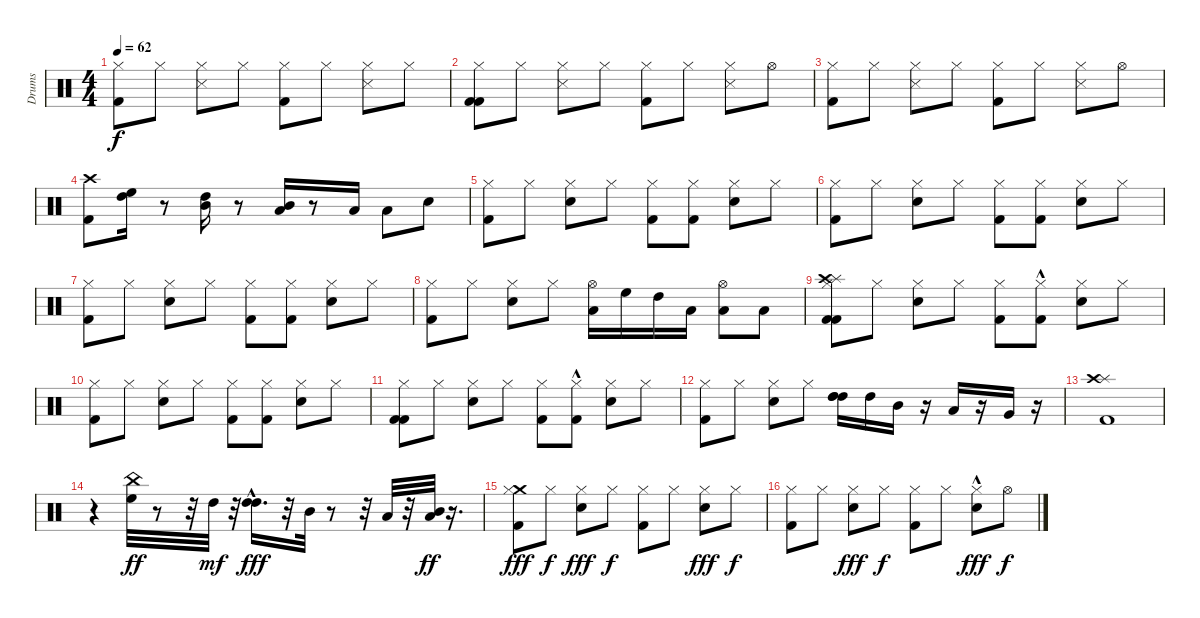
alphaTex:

\track ("Drums" "Drums") {instrument percussion}
\staff {score}
\articulation defaults
\ts (4 4)
\tempo 62
\clef neutral
\ks c
("Kick (hit) 2" "Hi-Hat (closed)").8{dy f} "Hi-Hat (closed)".8 ("Snare (side stick) 3" "Hi-Hat (closed)").8 "Hi-Hat (closed)".8 ("Kick (hit) 2" "Hi-Hat (closed)").8 "Hi-Hat (closed)".8 ("Snare (side stick) 3" "Hi-Hat (closed)").8 "Hi-Hat (closed)".8 |
("Kick (hit) 2" "Hi-Hat (closed)" "Kick (hit) 2").8 "Hi-Hat (closed)".8 ("Snare (side stick) 3" "Hi-Hat (closed)").8 "Hi-Hat (closed)".8 ("Kick (hit) 2" "Hi-Hat (closed)").8 "Hi-Hat (closed)".8 ("Snare (side stick) 3" "Hi-Hat (closed)").8 "Hi-Hat (open)".8 |
("Kick (hit) 2" "Hi-Hat (closed)").8 "Hi-Hat (closed)".8 ("Snare (side stick) 3" "Hi-Hat (closed)").8 "Hi-Hat (closed)".8 ("Kick (hit) 2" "Hi-Hat (closed)").8 "Hi-Hat (closed)".8 ("Snare (side stick) 3" "Hi-Hat (closed)").8 "Hi-Hat (open)".8 |
("Crash high (hit)" "Kick (hit) 2").8 ("High Floor Tom (hit)" "High Tom (hit)").16 r.8 ("Mid Tom (hit)" "High Tom (hit)").16 r.8 ("Mid Tom (hit)" "Low Tom (hit)").16 r.8 "Low Floor Tom (hit)".16 "Low Floor Tom (hit)".8 "Snare (hit) 2".8 |
("Kick (hit) 2" "Hi-Hat (closed)").8 "Hi-Hat (closed)".8 ("Snare (hit) 2" "Hi-Hat (closed)").8 "Hi-Hat (closed)".8 ("Kick (hit) 2" "Hi-Hat (closed)").8 ("Kick (hit) 2" "Hi-Hat (closed)").8 ("Snare (hit) 2" "Hi-Hat (closed)").8 "Hi-Hat (closed)".8 |
("Kick (hit) 2" "Hi-Hat (closed)").8 "Hi-Hat (closed)".8 ("Snare (hit) 2" "Hi-Hat (closed)").8 "Hi-Hat (closed)".8 ("Kick (hit) 2" "Hi-Hat (closed)").8 ("Kick (hit) 2" "Hi-Hat (closed)").8 ("Snare (hit) 2" "Hi-Hat (closed)").8 "Hi-Hat (closed)".8 |
("Kick (hit) 2" "Hi-Hat (closed)").8 "Hi-Hat (closed)".8 ("Snare (hit) 2" "Hi-Hat (closed)").8 "Hi-Hat (closed)".8 ("Kick (hit) 2" "Hi-Hat (closed)").8 ("Kick (hit) 2" "Hi-Hat (closed)").8 ("Snare (hit) 2" "Hi-Hat (closed)").8 "Hi-Hat (closed)".8 |
("Kick (hit) 2" "Hi-Hat (closed)").8 "Hi-Hat (closed)".8 ("Snare (hit) 2" "Hi-Hat (closed)").8 "Hi-Hat (closed)".8 ("Hi-Hat (open)" "Low Tom (hit)").16 "High Floor Tom (hit)".16 "High Tom (hit)".16 "Low Tom (hit)".16 ("Hi-Hat (open)" "Low Floor Tom (hit)").8 "Low Floor Tom (hit)".8 |
("Kick (hit) 2" "Hi-Hat (closed)" "Splash (hit)" "Crash high (hit)" "Kick (hit) 2").8 "Hi-Hat (closed)".8 ("Snare (hit) 2" "Hi-Hat (closed)").8 "Hi-Hat (closed)".8 ("Kick (hit) 2" "Hi-Hat (closed)").8 ("Kick (hit) 2"{hac} "Hi-Hat (closed)").8 ("Snare (hit) 2" "Hi-Hat (closed)").8 "Hi-Hat (closed)".8 |
("Kick (hit) 2" "Hi-Hat (closed)").8 "Hi-Hat (closed)".8 ("Snare (hit) 2" "Hi-Hat (closed)").8 "Hi-Hat (closed)".8 ("Kick (hit) 2" "Hi-Hat (closed)").8 ("Kick (hit) 2" "Hi-Hat (closed)").8 ("Snare (hit) 2" "Hi-Hat (closed)").8 "Hi-Hat (closed)".8 |
("Kick (hit) 2" "Hi-Hat (closed)" "Kick (hit) 2").8 "Hi-Hat (closed)".8 ("Snare (hit) 2" "Hi-Hat (closed)").8 "Hi-Hat (closed)".8 ("Kick (hit) 2" "Hi-Hat (closed)").8 ("Kick (hit) 2"{hac} "Hi-Hat (closed)").8 ("Snare (hit) 2" "Hi-Hat (closed)").8 "Hi-Hat (closed)".8 |
("Kick (hit) 2" "Hi-Hat (closed)").8 "Hi-Hat (closed)".8 ("Snare (hit) 2" "Hi-Hat (closed)").8 "Hi-Hat (closed)".8 ("High Tom (hit)" "High Tom (hit)" "High Tom (hit)").16 "High Tom (hit)".16 "Mid Tom (hit)".16 r.16 "Low Tom (hit)".16 r.16 "Very Low Tom (hit)".16 r.16 |
("Splash (hit)" "Crash high (hit)" "Kick (hit) 2").1 |
r.4 ("High Floor Tom (hit)" "China (hit)").32{dy ff} r.8 r.32 "High Tom (hit)".32{dy mf} r.32 ("High Tom (hit)"{hac} "High Tom (hit)"{hac}).16{d dy fff} r.32 "Mid Tom (hit)".32 r.8 r.32 "Low Tom (hit)".32 r.32 ("Low Tom (hit)" "Mid Tom (hit)").32{dy ff} r.16{d} |
("Crash medium (hit)" "Kick (hit) 2" "Hi-Hat (closed)").8{dy fff} "Hi-Hat (closed)".8{dy f} ("Hi-Hat (closed)" "Electric Snare (hit)").8{dy fff} "Hi-Hat (closed)".8{dy f} ("Kick (hit) 2" "Hi-Hat (closed)").8 "Hi-Hat (closed)".8 ("Hi-Hat (closed)" "Electric Snare (hit)").8{dy fff} "Hi-Hat (closed)".8{dy f} |
("Kick (hit) 2" "Hi-Hat (closed)").8 "Hi-Hat (closed)".8 ("Hi-Hat (closed)" "Electric Snare (hit)").8{dy fff} "Hi-Hat (closed)".8{dy f} ("Kick (hit) 2" "Hi-Hat (closed)").8 "Hi-Hat (closed)".8 ("Hi-Hat (closed)" "Electric Snare (hit)"{hac}).8{dy fff} "Hi-Hat (open)".8{dy f}
